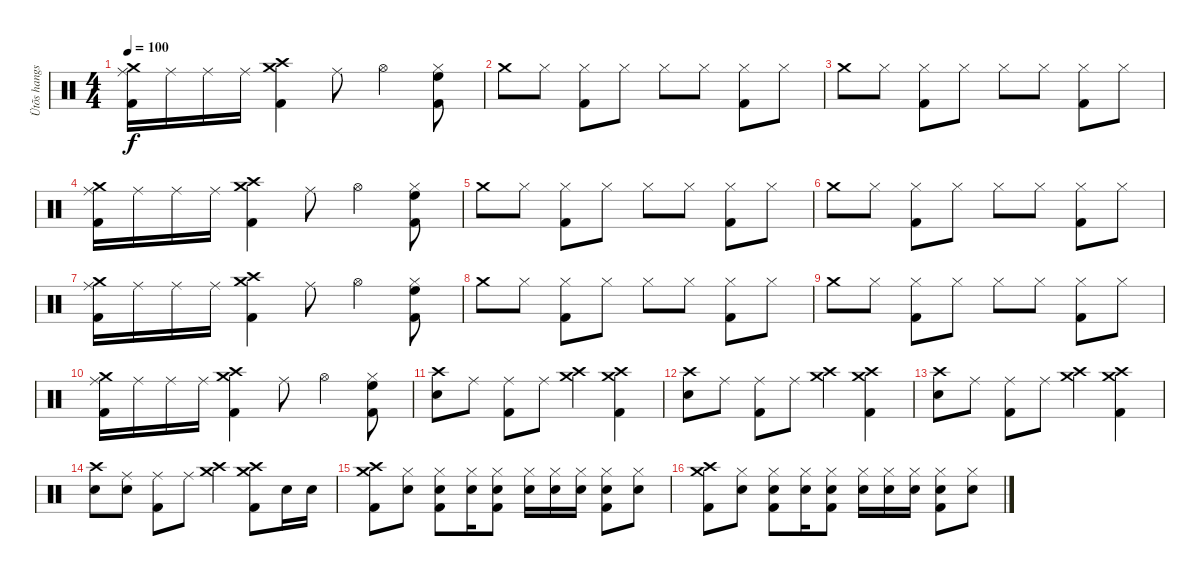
\track ("Ütõs hangszer" "Ütõs hangs") {instrument percussion}
\staff {score}
\articulation defaults
\ts (4 4)
\tempo 100
\clef neutral
\ks c
("Crash medium (hit)" "Ride (middle)" "Kick (hit) 2").16{dy f} "Ride (middle)".16 "Ride (middle)".16 "Ride (middle)".16 ("Crash high (hit)" "Crash medium (hit)" "Kick (hit) 2").4 "Ride (middle)".8 "Hi-Hat (open)".4 ("Hi-Hat (closed)" "High Floor Tom (hit)" "Kick (hit) 2").8 |
"Crash medium (hit)".8 "Hi-Hat (closed)".8 ("Hi-Hat (closed)" "Kick (hit) 2").8 "Hi-Hat (closed)".8 "Hi-Hat (closed)".8 "Hi-Hat (closed)".8 ("Hi-Hat (closed)" "Kick (hit) 2").8 "Hi-Hat (closed)".8 |
"Crash medium (hit)".8 "Hi-Hat (closed)".8 ("Hi-Hat (closed)" "Kick (hit) 2").8 "Hi-Hat (closed)".8 "Hi-Hat (closed)".8 "Hi-Hat (closed)".8 ("Hi-Hat (closed)" "Kick (hit) 2").8 "Hi-Hat (closed)".8 |
("Crash medium (hit)" "Ride (middle)" "Kick (hit) 2").16 "Ride (middle)".16 "Ride (middle)".16 "Ride (middle)".16 ("Crash high (hit)" "Crash medium (hit)" "Kick (hit) 2").4 "Ride (middle)".8 "Hi-Hat (open)".4 ("Hi-Hat (closed)" "High Floor Tom (hit)" "Kick (hit) 2").8 |
"Crash medium (hit)".8 "Hi-Hat (closed)".8 ("Hi-Hat (closed)" "Kick (hit) 2").8 "Hi-Hat (closed)".8 "Hi-Hat (closed)".8 "Hi-Hat (closed)".8 ("Hi-Hat (closed)" "Kick (hit) 2").8 "Hi-Hat (closed)".8 |
"Crash medium (hit)".8 "Hi-Hat (closed)".8 ("Hi-Hat (closed)" "Kick (hit) 2").8 "Hi-Hat (closed)".8 "Hi-Hat (closed)".8 "Hi-Hat (closed)".8 ("Hi-Hat (closed)" "Kick (hit) 2").8 "Hi-Hat (closed)".8 |
("Crash medium (hit)" "Ride (middle)" "Kick (hit) 2").16 "Ride (middle)".16 "Ride (middle)".16 "Ride (middle)".16 ("Crash high (hit)" "Crash medium (hit)" "Kick (hit) 2").4 "Ride (middle)".8 "Hi-Hat (open)".4 ("Hi-Hat (closed)" "High Floor Tom (hit)" "Kick (hit) 2").8 |
"Crash medium (hit)".8 "Hi-Hat (closed)".8 ("Hi-Hat (closed)" "Kick (hit) 2").8 "Hi-Hat (closed)".8 "Hi-Hat (closed)".8 "Hi-Hat (closed)".8 ("Hi-Hat (closed)" "Kick (hit) 2").8 "Hi-Hat (closed)".8 |
"Crash medium (hit)".8 "Hi-Hat (closed)".8 ("Hi-Hat (closed)" "Kick (hit) 2").8 "Hi-Hat (closed)".8 "Hi-Hat (closed)".8 "Hi-Hat (closed)".8 ("Hi-Hat (closed)" "Kick (hit) 2").8 "Hi-Hat (closed)".8 |
("Crash medium (hit)" "Ride (middle)" "Kick (hit) 2").16 "Ride (middle)".16 "Ride (middle)".16 "Ride (middle)".16 ("Crash high (hit)" "Crash medium (hit)" "Kick (hit) 2").4 "Ride (middle)".8 "Hi-Hat (open)".4 ("Hi-Hat (closed)" "High Floor Tom (hit)" "Kick (hit) 2").8 |
("Crash high (hit)" "Snare (hit) 2").8 "Ride (middle)".8 ("Ride (middle)" "Kick (hit) 2").8 "Ride (middle)".8 ("Crash high (hit)" "Crash medium (hit)").4 ("Crash high (hit)" "Crash medium (hit)" "Kick (hit) 2").4 |
("Crash high (hit)" "Snare (hit) 2").8 "Ride (middle)".8 ("Ride (middle)" "Kick (hit) 2").8 "Ride (middle)".8 ("Crash high (hit)" "Crash medium (hit)").4 ("Crash high (hit)" "Crash medium (hit)" "Kick (hit) 2").4 |
("Crash high (hit)" "Snare (hit) 2").8 "Ride (middle)".8 ("Ride (middle)" "Kick (hit) 2").8 "Ride (middle)".8 ("Crash high (hit)" "Crash medium (hit)").4 ("Crash high (hit)" "Crash medium (hit)" "Kick (hit) 2").4 |
("Crash high (hit)" "Snare (hit) 2").8 ("Ride (middle)" "Snare (hit) 2").8 ("Ride (middle)" "Kick (hit) 2").8 "Ride (middle)".8 ("Crash high (hit)" "Crash medium (hit)").4 ("Crash high (hit)" "Crash medium (hit)" "Kick (hit) 2").8 "Snare (hit) 2".16 "Snare (hit) 2".16 |
("Crash medium (hit)" "Crash high (hit)" "Kick (hit) 2").8 ("Hi-Hat (closed)" "Snare (hit) 2").8 ("Hi-Hat (closed)" "Snare (hit) 2" "Kick (hit) 2").8 ("Hi-Hat (closed)" "Snare (hit) 2").16 ("Hi-Hat (closed)" "Snare (hit) 2" "Kick (hit) 2").8 ("Hi-Hat (closed)" "Snare (hit) 2").16 ("Hi-Hat (closed)" "Snare (hit) 2").16 ("Hi-Hat (closed)" "Snare (hit) 2").16 ("Hi-Hat (closed)" "Snare (hit) 2" "Kick (hit) 2").8 ("Hi-Hat (closed)" "Snare (hit) 2").8 |
("Crash medium (hit)" "Crash high (hit)" "Kick (hit) 2").8 ("Hi-Hat (closed)" "Snare (hit) 2").8 ("Hi-Hat (closed)" "Snare (hit) 2" "Kick (hit) 2").8 ("Hi-Hat (closed)" "Snare (hit) 2").16 ("Hi-Hat (closed)" "Snare (hit) 2" "Kick (hit) 2").8 ("Hi-Hat (closed)" "Snare (hit) 2").16 ("Hi-Hat (closed)" "Snare (hit) 2").16 ("Hi-Hat (closed)" "Snare (hit) 2").16 ("Hi-Hat (closed)" "Snare (hit) 2" "Kick (hit) 2").8 ("Hi-Hat (closed)" "Snare (hit) 2").8
